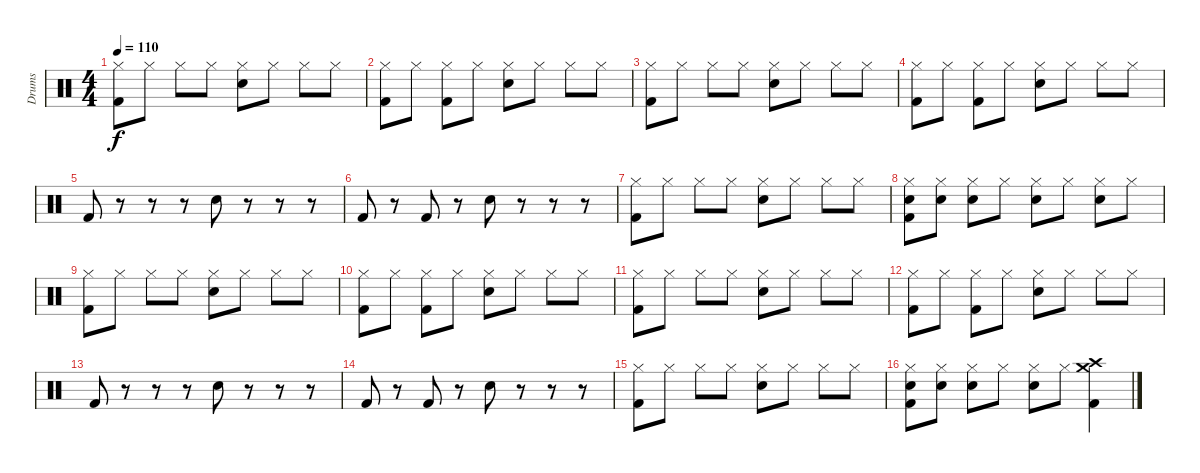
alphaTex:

\track ("Drums" "Drums") {instrument percussion}
\staff {score}
\articulation defaults
\ts (4 4)
\tempo 110
\clef neutral
\ks c
("Hi-Hat (closed)" "Kick (hit) 2").8{dy f} "Hi-Hat (closed)".8 "Hi-Hat (closed)".8 "Hi-Hat (closed)".8 ("Hi-Hat (closed)" "Snare (hit) 2").8 "Hi-Hat (closed)".8 "Hi-Hat (closed)".8 "Hi-Hat (closed)".8 |
("Hi-Hat (closed)" "Kick (hit) 2").8 "Hi-Hat (closed)".8 ("Hi-Hat (closed)" "Kick (hit) 2").8 "Hi-Hat (closed)".8 ("Hi-Hat (closed)" "Snare (hit) 2").8 "Hi-Hat (closed)".8 "Hi-Hat (closed)".8 "Hi-Hat (closed)".8 |
("Hi-Hat (closed)" "Kick (hit) 2").8 "Hi-Hat (closed)".8 "Hi-Hat (closed)".8 "Hi-Hat (closed)".8 ("Hi-Hat (closed)" "Snare (hit) 2").8 "Hi-Hat (closed)".8 "Hi-Hat (closed)".8 "Hi-Hat (closed)".8 |
("Hi-Hat (closed)" "Kick (hit) 2").8 "Hi-Hat (closed)".8 ("Hi-Hat (closed)" "Kick (hit) 2").8 "Hi-Hat (closed)".8 ("Hi-Hat (closed)" "Snare (hit) 2").8 "Hi-Hat (closed)".8 "Hi-Hat (closed)".8 "Hi-Hat (closed)".8 |
"Kick (hit) 2".8 r.8 r.8 r.8 "Snare (hit) 2".8 r.8 r.8 r.8 |
"Kick (hit) 2".8 r.8 "Kick (hit) 2".8 r.8 "Snare (hit) 2".8 r.8 r.8 r.8 |
("Hi-Hat (closed)" "Kick (hit) 2").8 "Hi-Hat (closed)".8 "Hi-Hat (closed)".8 "Hi-Hat (closed)".8 ("Hi-Hat (closed)" "Snare (hit) 2").8 "Hi-Hat (closed)".8 "Hi-Hat (closed)".8 "Hi-Hat (closed)".8 |
("Hi-Hat (closed)" "Snare (hit) 2" "Kick (hit) 2").8 ("Hi-Hat (closed)" "Snare (hit) 2").8 ("Hi-Hat (closed)" "Snare (hit) 2").8 "Hi-Hat (closed)".8 ("Hi-Hat (closed)" "Snare (hit) 2").8 "Hi-Hat (closed)".8 ("Hi-Hat (closed)" "Snare (hit) 2").8 "Hi-Hat (closed)".8 |
("Hi-Hat (closed)" "Kick (hit) 2").8 "Hi-Hat (closed)".8 "Hi-Hat (closed)".8 "Hi-Hat (closed)".8 ("Hi-Hat (closed)" "Snare (hit) 2").8 "Hi-Hat (closed)".8 "Hi-Hat (closed)".8 "Hi-Hat (closed)".8 |
("Hi-Hat (closed)" "Kick (hit) 2").8 "Hi-Hat (closed)".8 ("Hi-Hat (closed)" "Kick (hit) 2").8 "Hi-Hat (closed)".8 ("Hi-Hat (closed)" "Snare (hit) 2").8 "Hi-Hat (closed)".8 "Hi-Hat (closed)".8 "Hi-Hat (closed)".8 |
("Hi-Hat (closed)" "Kick (hit) 2").8 "Hi-Hat (closed)".8 "Hi-Hat (closed)".8 "Hi-Hat (closed)".8 ("Hi-Hat (closed)" "Snare (hit) 2").8 "Hi-Hat (closed)".8 "Hi-Hat (closed)".8 "Hi-Hat (closed)".8 |
("Hi-Hat (closed)" "Kick (hit) 2").8 "Hi-Hat (closed)".8 ("Hi-Hat (closed)" "Kick (hit) 2").8 "Hi-Hat (closed)".8 ("Hi-Hat (closed)" "Snare (hit) 2").8 "Hi-Hat (closed)".8 "Hi-Hat (closed)".8 "Hi-Hat (closed)".8 |
"Kick (hit) 2".8 r.8 r.8 r.8 "Snare (hit) 2".8 r.8 r.8 r.8 |
"Kick (hit) 2".8 r.8 "Kick (hit) 2".8 r.8 "Snare (hit) 2".8 r.8 r.8 r.8 |
("Hi-Hat (closed)" "Kick (hit) 2").8 "Hi-Hat (closed)".8 "Hi-Hat (closed)".8 "Hi-Hat (closed)".8 ("Hi-Hat (closed)" "Snare (hit) 2").8 "Hi-Hat (closed)".8 "Hi-Hat (closed)".8 "Hi-Hat (closed)".8 |
("Hi-Hat (closed)" "Snare (hit) 2" "Kick (hit) 2").8 ("Hi-Hat (closed)" "Snare (hit) 2").8 ("Hi-Hat (closed)" "Snare (hit) 2").8 "Hi-Hat (closed)".8 ("Hi-Hat (closed)" "Snare (hit) 2").8 "Hi-Hat (closed)".8 ("Crash medium (hit)" "Crash high (hit)" "Kick (hit) 2").4
